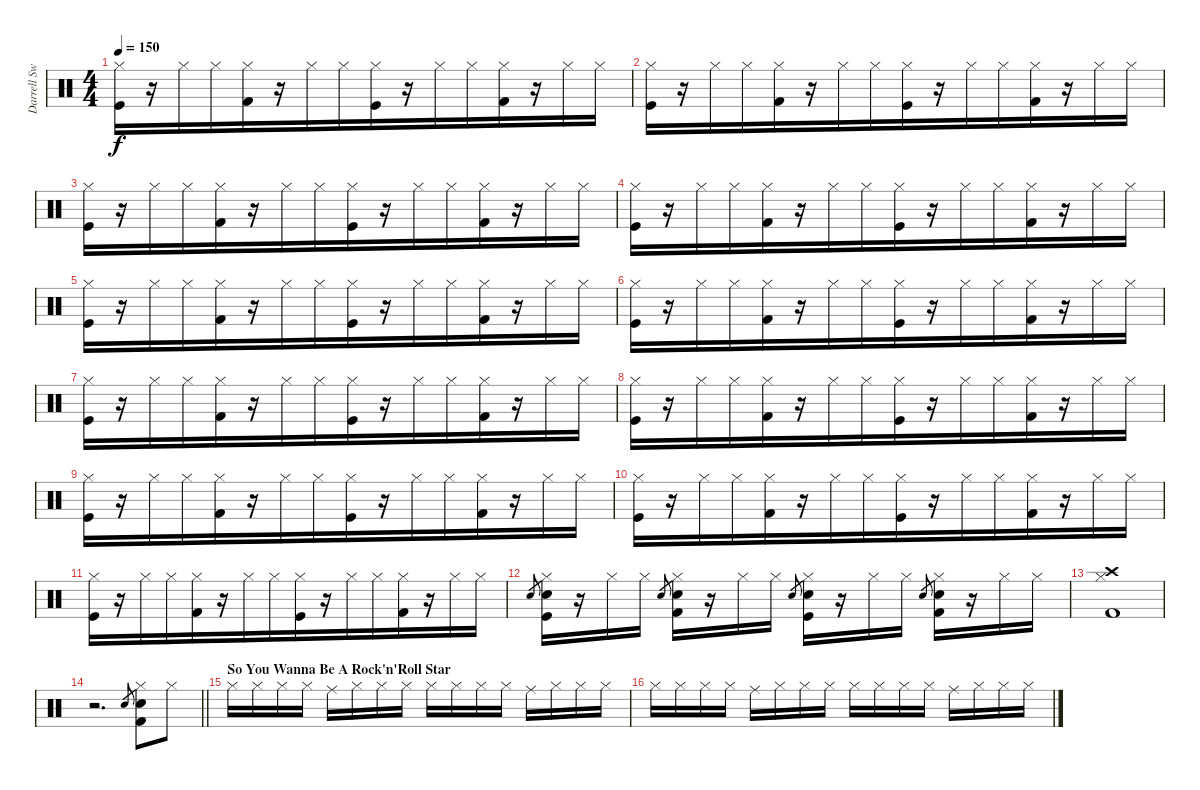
\track ("Darrell Sweet (drums)" "Darrell Sw") {instrument percussion}
\staff {score}
\articulation defaults
\ts (4 4)
\tempo 150
\clef neutral
\ks c
("Hi-Hat (closed)" "Kick (hit)").16{dy f} r.16 "Hi-Hat (closed)".16 "Hi-Hat (closed)".16{beam merge} ("Hi-Hat (closed)" "Kick (hit) 2").16 r.16 "Hi-Hat (closed)".16 "Hi-Hat (closed)".16{beam merge} ("Hi-Hat (closed)" "Kick (hit)").16 r.16 "Hi-Hat (closed)".16 "Hi-Hat (closed)".16{beam merge} ("Hi-Hat (closed)" "Kick (hit) 2").16 r.16 "Hi-Hat (closed)".16 "Hi-Hat (closed)".16 |
("Hi-Hat (closed)" "Kick (hit)").16 r.16 "Hi-Hat (closed)".16 "Hi-Hat (closed)".16{beam merge} ("Hi-Hat (closed)" "Kick (hit) 2").16 r.16 "Hi-Hat (closed)".16 "Hi-Hat (closed)".16{beam merge} ("Hi-Hat (closed)" "Kick (hit)").16 r.16 "Hi-Hat (closed)".16 "Hi-Hat (closed)".16{beam merge} ("Hi-Hat (closed)" "Kick (hit) 2").16 r.16 "Hi-Hat (closed)".16 "Hi-Hat (closed)".16 |
("Hi-Hat (closed)" "Kick (hit)").16 r.16 "Hi-Hat (closed)".16 "Hi-Hat (closed)".16{beam merge} ("Hi-Hat (closed)" "Kick (hit) 2").16 r.16 "Hi-Hat (closed)".16 "Hi-Hat (closed)".16{beam merge} ("Hi-Hat (closed)" "Kick (hit)").16 r.16 "Hi-Hat (closed)".16 "Hi-Hat (closed)".16{beam merge} ("Hi-Hat (closed)" "Kick (hit) 2").16 r.16 "Hi-Hat (closed)".16 "Hi-Hat (closed)".16 |
("Hi-Hat (closed)" "Kick (hit)").16 r.16 "Hi-Hat (closed)".16 "Hi-Hat (closed)".16{beam merge} ("Hi-Hat (closed)" "Kick (hit) 2").16 r.16 "Hi-Hat (closed)".16 "Hi-Hat (closed)".16{beam merge} ("Hi-Hat (closed)" "Kick (hit)").16 r.16 "Hi-Hat (closed)".16 "Hi-Hat (closed)".16{beam merge} ("Hi-Hat (closed)" "Kick (hit) 2").16 r.16 "Hi-Hat (closed)".16 "Hi-Hat (closed)".16 |
("Hi-Hat (closed)" "Kick (hit)").16 r.16 "Hi-Hat (closed)".16 "Hi-Hat (closed)".16{beam merge} ("Hi-Hat (closed)" "Kick (hit) 2").16 r.16 "Hi-Hat (closed)".16 "Hi-Hat (closed)".16{beam merge} ("Hi-Hat (closed)" "Kick (hit)").16 r.16 "Hi-Hat (closed)".16 "Hi-Hat (closed)".16{beam merge} ("Hi-Hat (closed)" "Kick (hit) 2").16 r.16 "Hi-Hat (closed)".16 "Hi-Hat (closed)".16 |
("Hi-Hat (closed)" "Kick (hit)").16 r.16 "Hi-Hat (closed)".16 "Hi-Hat (closed)".16{beam merge} ("Hi-Hat (closed)" "Kick (hit) 2").16 r.16 "Hi-Hat (closed)".16 "Hi-Hat (closed)".16{beam merge} ("Hi-Hat (closed)" "Kick (hit)").16 r.16 "Hi-Hat (closed)".16 "Hi-Hat (closed)".16{beam merge} ("Hi-Hat (closed)" "Kick (hit) 2").16 r.16 "Hi-Hat (closed)".16 "Hi-Hat (closed)".16 |
("Hi-Hat (closed)" "Kick (hit)").16 r.16 "Hi-Hat (closed)".16 "Hi-Hat (closed)".16{beam merge} ("Hi-Hat (closed)" "Kick (hit) 2").16 r.16 "Hi-Hat (closed)".16 "Hi-Hat (closed)".16{beam merge} ("Hi-Hat (closed)" "Kick (hit)").16 r.16 "Hi-Hat (closed)".16 "Hi-Hat (closed)".16{beam merge} ("Hi-Hat (closed)" "Kick (hit) 2").16 r.16 "Hi-Hat (closed)".16 "Hi-Hat (closed)".16 |
("Hi-Hat (closed)" "Kick (hit)").16 r.16 "Hi-Hat (closed)".16 "Hi-Hat (closed)".16{beam merge} ("Hi-Hat (closed)" "Kick (hit) 2").16 r.16 "Hi-Hat (closed)".16 "Hi-Hat (closed)".16{beam merge} ("Hi-Hat (closed)" "Kick (hit)").16 r.16 "Hi-Hat (closed)".16 "Hi-Hat (closed)".16{beam merge} ("Hi-Hat (closed)" "Kick (hit) 2").16 r.16 "Hi-Hat (closed)".16 "Hi-Hat (closed)".16 |
("Hi-Hat (closed)" "Kick (hit)").16 r.16 "Hi-Hat (closed)".16 "Hi-Hat (closed)".16{beam merge} ("Hi-Hat (closed)" "Kick (hit) 2").16 r.16 "Hi-Hat (closed)".16 "Hi-Hat (closed)".16{beam merge} ("Hi-Hat (closed)" "Kick (hit)").16 r.16 "Hi-Hat (closed)".16 "Hi-Hat (closed)".16{beam merge} ("Hi-Hat (closed)" "Kick (hit) 2").16 r.16 "Hi-Hat (closed)".16 "Hi-Hat (closed)".16 |
("Hi-Hat (closed)" "Kick (hit)").16 r.16 "Hi-Hat (closed)".16 "Hi-Hat (closed)".16{beam merge} ("Hi-Hat (closed)" "Kick (hit) 2").16 r.16 "Hi-Hat (closed)".16 "Hi-Hat (closed)".16{beam merge} ("Hi-Hat (closed)" "Kick (hit)").16 r.16 "Hi-Hat (closed)".16 "Hi-Hat (closed)".16{beam merge} ("Hi-Hat (closed)" "Kick (hit) 2").16 r.16 "Hi-Hat (closed)".16 "Hi-Hat (closed)".16 |
("Hi-Hat (closed)" "Kick (hit)").16 r.16 "Hi-Hat (closed)".16 "Hi-Hat (closed)".16{beam merge} ("Hi-Hat (closed)" "Kick (hit) 2").16 r.16 "Hi-Hat (closed)".16 "Hi-Hat (closed)".16{beam merge} ("Hi-Hat (closed)" "Kick (hit)").16 r.16 "Hi-Hat (closed)".16 "Hi-Hat (closed)".16{beam merge} ("Hi-Hat (closed)" "Kick (hit) 2").16 r.16 "Hi-Hat (closed)".16 "Hi-Hat (closed)".16 |
"Snare (hit) 2".8{gr} ("Hi-Hat (closed)" "Kick (hit)" "Snare (hit) 2").16 r.16 "Hi-Hat (closed)".16 "Hi-Hat (closed)".16 "Snare (hit) 2".8{gr beam merge} ("Hi-Hat (closed)" "Kick (hit) 2" "Snare (hit) 2").16 r.16 "Hi-Hat (closed)".16 "Hi-Hat (closed)".16 "Snare (hit) 2".8{gr beam merge} ("Hi-Hat (closed)" "Kick (hit)" "Snare (hit) 2").16 r.16 "Hi-Hat (closed)".16 "Hi-Hat (closed)".16 "Snare (hit) 2".8{gr beam merge} ("Hi-Hat (closed)" "Kick (hit) 2" "Snare (hit) 2").16 r.16 "Hi-Hat (closed)".16 "Hi-Hat (closed)".16 |
("Kick (hit) 2" "Crash high (hit)" "Hi-Hat (closed)").1 |
\barLineRight lightlight
r.2{d} "Snare (hit) 2".8{gr} ("Hi-Hat (closed)" "Snare (hit) 2" "Kick (hit) 2").8 "Hi-Hat (closed)".8 |
\section ("" "So You Wanna Be A Rock'n'Roll Star")
"Hi-Hat (closed)".16 "Hi-Hat (closed)".16 "Hi-Hat (closed)".16 "Hi-Hat (closed)".16 "Ride (middle)".16 "Hi-Hat (closed)".16 "Hi-Hat (closed)".16 "Hi-Hat (closed)".16 "Hi-Hat (closed)".16 "Hi-Hat (closed)".16 "Hi-Hat (closed)".16 "Hi-Hat (closed)".16 "Ride (middle)".16 "Hi-Hat (closed)".16 "Hi-Hat (closed)".16 "Hi-Hat (closed)".16 |
"Hi-Hat (closed)".16 "Hi-Hat (closed)".16 "Hi-Hat (closed)".16 "Hi-Hat (closed)".16 "Ride (middle)".16 "Hi-Hat (closed)".16 "Hi-Hat (closed)".16 "Hi-Hat (closed)".16 "Hi-Hat (closed)".16 "Hi-Hat (closed)".16 "Hi-Hat (closed)".16 "Hi-Hat (closed)".16 "Ride (middle)".16 "Hi-Hat (closed)".16 "Hi-Hat (closed)".16 "Hi-Hat (closed)".16
